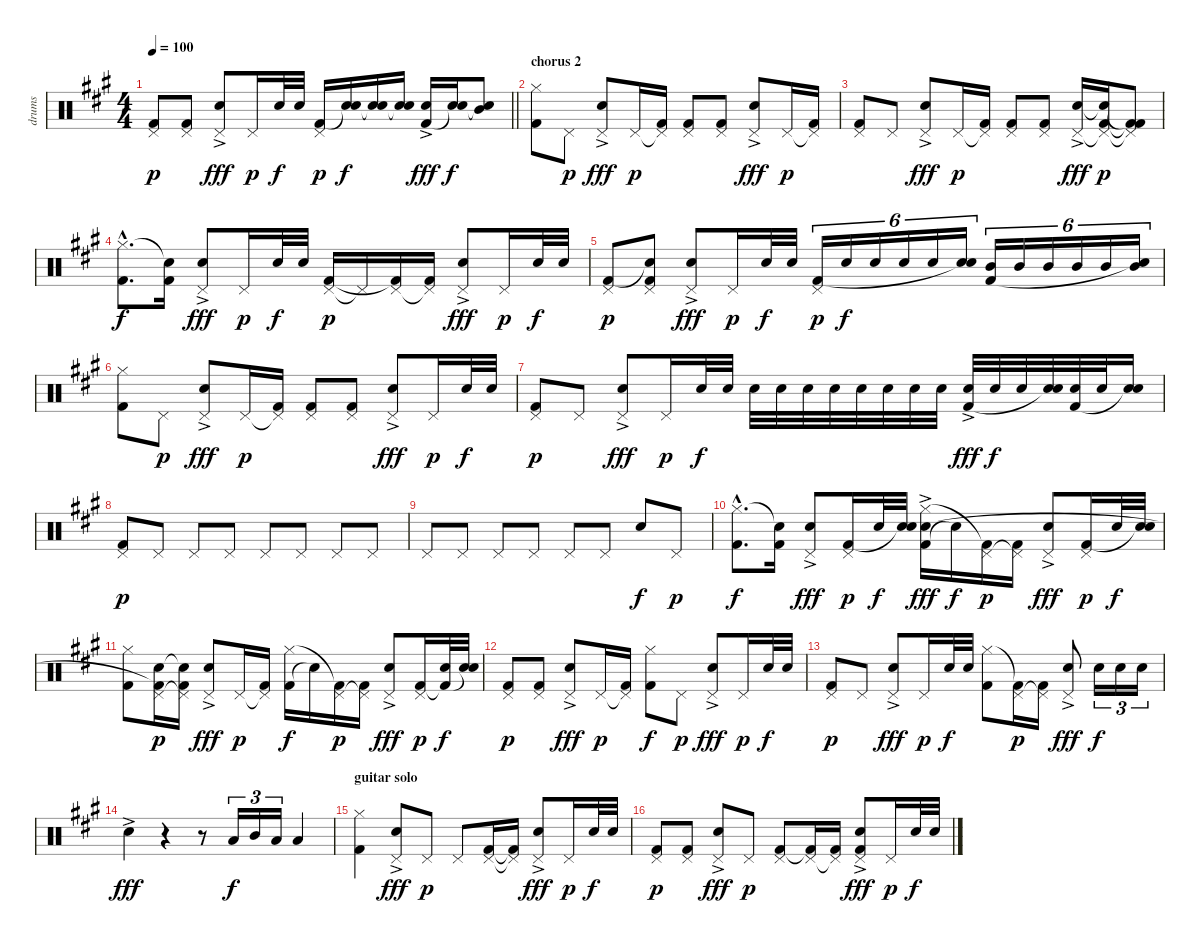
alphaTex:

\track ("drums" "drums") {instrument percussion}
\staff {score}
\articulation defaults
\ts (4 4)
\tempo 100
\clef neutral
\barLineRight lightlight
\ks a
("Pedal Hi-Hat (hit)" "Kick (hit) 2").8{dy p} ("Pedal Hi-Hat (hit)" "Kick (hit) 2").8 ("Pedal Hi-Hat (hit)" "Snare (hit) 2"{ac}).8{dy fff} "Pedal Hi-Hat (hit)".16{dy p} "Snare (hit) 2".32{dy f} "Snare (hit) 2".32 ("Pedal Hi-Hat (hit)" "Kick (hit) 2").16{dy p} ("Snare (hit) 2" "Snare (hit)"{t}).16{dy f} ("Snare (hit) 2" "Snare (hit)"{t}).16 ("Snare (hit) 2" "Snare (hit)"{t}).16 ("Snare (hit) 2"{ac} "Kick (hit) 2").16{dy fff} ("Snare (hit) 2" "Snare (hit)"{t}).16{dy f} ("Mid Tom (hit)" "Snare (hit)"{t}).8 |
\section ("" "chorus 2")
("Hi-Hat (closed)" "Kick (hit) 2").8 "Pedal Hi-Hat (hit)".8{dy p} ("Pedal Hi-Hat (hit)" "Snare (hit) 2"{ac}).8{dy fff} "Pedal Hi-Hat (hit)".16{dy p} ("Pedal Hi-Hat (hit)"{t} "Kick (hit) 2").16 ("Pedal Hi-Hat (hit)" "Kick (hit) 2").8 ("Pedal Hi-Hat (hit)" "Kick (hit) 2").8 ("Pedal Hi-Hat (hit)" "Snare (hit) 2"{ac}).8{dy fff} "Pedal Hi-Hat (hit)".16{dy p} ("Pedal Hi-Hat (hit)"{t} "Kick (hit) 2").16 |
("Pedal Hi-Hat (hit)" "Kick (hit) 2").8 "Pedal Hi-Hat (hit)".8 ("Pedal Hi-Hat (hit)" "Snare (hit) 2"{ac}).8{dy fff} "Pedal Hi-Hat (hit)".16{dy p} ("Pedal Hi-Hat (hit)"{t} "Kick (hit) 2").16 ("Pedal Hi-Hat (hit)" "Kick (hit) 2").8 ("Pedal Hi-Hat (hit)" "Kick (hit) 2").8 ("Pedal Hi-Hat (hit)" "Snare (hit) 2"{ac}).16{dy fff} ("Pedal Hi-Hat (hit)"{t} "Snare (hit)"{t} "Kick (hit) 2").16{dy p} ("Pedal Hi-Hat (hit)"{t} "Kick (hit) 2"{t} "Kick (hit) 2"{t}).8 |
("Hi-Hat (closed)"{hac} "Kick (hit) 2"{hac}).8{d dy f} ("Snare (hit)"{t} "Kick (hit) 2").16 ("Pedal Hi-Hat (hit)" "Snare (hit) 2"{ac}).8{dy fff} "Pedal Hi-Hat (hit)".16{dy p} "Snare (hit) 2".32{dy f} "Snare (hit) 2".32 ("Pedal Hi-Hat (hit)" "Kick (hit) 2").16{dy p} "Pedal Hi-Hat (hit)"{t}.16 ("Pedal Hi-Hat (hit)" "Kick (hit) 2"{t}).16 ("Pedal Hi-Hat (hit)"{t} "Kick (hit) 2").16 ("Pedal Hi-Hat (hit)" "Snare (hit) 2"{ac}).8{dy fff} "Pedal Hi-Hat (hit)".16{dy p} "Snare (hit) 2".32{dy f} "Snare (hit) 2".32 |
("Pedal Hi-Hat (hit)" "Kick (hit) 2").8{dy p} ("Pedal Hi-Hat (hit)" "Snare (hit)"{t} "Kick (hit) 2").8 ("Pedal Hi-Hat (hit)" "Snare (hit) 2"{ac}).8{dy fff} "Pedal Hi-Hat (hit)".16{dy p} "Snare (hit) 2".32{dy f} "Snare (hit) 2".32 ("Pedal Hi-Hat (hit)" "Kick (hit) 2").16{tu (6 4) dy p} "Snare (hit) 2".16{tu (6 4) dy f} "Snare (hit) 2".16{tu (6 4)} "Snare (hit) 2".16{tu (6 4)} "Snare (hit) 2".16{tu (6 4)} ("Snare (hit) 2" "Snare (hit)"{t}).16{tu (6 4)} ("Mid Tom (hit)" "Kick (hit) 2").16{tu (6 4)} "Mid Tom (hit)".16{tu (6 4)} "Mid Tom (hit)".16{tu (6 4)} "Mid Tom (hit)".16{tu (6 4)} "Mid Tom (hit)".16{tu (6 4)} ("Mid Tom (hit)" "Snare (hit)"{t}).16{tu (6 4)} |
("Hi-Hat (closed)" "Kick (hit) 2").8 "Pedal Hi-Hat (hit)".8{dy p} ("Pedal Hi-Hat (hit)" "Snare (hit) 2"{ac}).8{dy fff} "Pedal Hi-Hat (hit)".16{dy p} ("Pedal Hi-Hat (hit)"{t} "Kick (hit) 2").16 ("Pedal Hi-Hat (hit)" "Kick (hit) 2").8 ("Pedal Hi-Hat (hit)" "Kick (hit) 2").8 ("Pedal Hi-Hat (hit)" "Snare (hit) 2"{ac}).8{dy fff} "Pedal Hi-Hat (hit)".16{dy p} "Snare (hit) 2".32{dy f} "Snare (hit) 2".32 |
("Pedal Hi-Hat (hit)" "Kick (hit) 2").8{dy p} "Pedal Hi-Hat (hit)".8 ("Pedal Hi-Hat (hit)" "Snare (hit) 2"{ac}).8{dy fff} "Pedal Hi-Hat (hit)".16{dy p} "Snare (hit) 2".32{dy f} "Snare (hit) 2".32 "Snare (hit) 2".32 "Snare (hit) 2".32 "Snare (hit) 2".32 "Snare (hit) 2".32 "Snare (hit) 2".32 "Snare (hit) 2".32 "Snare (hit) 2".32 "Snare (hit) 2".32 ("Snare (hit) 2"{ac} "Kick (hit) 2").32{dy fff} "Snare (hit) 2".32{dy f} "Snare (hit) 2".32 ("Snare (hit) 2" "Snare (hit)"{t}).32 ("Snare (hit) 2" "Kick (hit) 2").32 "Snare (hit) 2".32 ("Snare (hit) 2" "Snare (hit)"{t}).16 |
("Pedal Hi-Hat (hit)" "Kick (hit) 2").8{dy p} "Pedal Hi-Hat (hit)".8 "Pedal Hi-Hat (hit)".8 "Pedal Hi-Hat (hit)".8 "Pedal Hi-Hat (hit)".8 "Pedal Hi-Hat (hit)".8 "Pedal Hi-Hat (hit)".8 "Pedal Hi-Hat (hit)".8 |
"Pedal Hi-Hat (hit)".8 "Pedal Hi-Hat (hit)".8 "Pedal Hi-Hat (hit)".8 "Pedal Hi-Hat (hit)".8 "Pedal Hi-Hat (hit)".8 "Pedal Hi-Hat (hit)".8 "Snare (hit) 2".8{dy f} "Pedal Hi-Hat (hit)".8{dy p} |
("Hi-Hat (closed)"{hac} "Kick (hit) 2"{hac}).8{d dy f} ("Snare (hit)"{t} "Kick (hit) 2").16 ("Pedal Hi-Hat (hit)" "Snare (hit) 2"{ac}).8{dy fff} ("Pedal Hi-Hat (hit)" "Kick (hit) 2").16{dy p} "Snare (hit) 2".32{dy f} ("Snare (hit) 2" "Snare (hit)"{t}).32 ("Kick (hit) 2" "Hi-Hat (closed)"{ac} "Snare (hit) 2").16{dy fff} "Snare (hit)"{t}.16{dy f} ("Pedal Hi-Hat (hit)" "Kick (hit) 2"{t}).16{dy p} ("Pedal Hi-Hat (hit)"{t} "Kick (hit) 2").16 ("Pedal Hi-Hat (hit)" "Snare (hit) 2"{ac}).8{dy fff} ("Pedal Hi-Hat (hit)" "Kick (hit) 2").16{dy p} "Snare (hit) 2".32{dy f} ("Snare (hit) 2" "Snare (hit)"{t}).32 |
("Hi-Hat (closed)" "Kick (hit) 2").8 ("Pedal Hi-Hat (hit)" "Snare (hit) 2" "Kick (hit) 2"{t}).16{dy p} ("Pedal Hi-Hat (hit)"{t} "Snare (hit) 2"{t} "Kick (hit) 2").16 ("Pedal Hi-Hat (hit)" "Snare (hit) 2"{ac}).8{dy fff} "Pedal Hi-Hat (hit)".16{dy p} ("Pedal Hi-Hat (hit)"{t} "Kick (hit) 2").16 ("Kick (hit) 2" "Hi-Hat (closed)").16{dy f} "Snare (hit)"{t}.16 ("Pedal Hi-Hat (hit)" "Kick (hit) 2"{t}).16{dy p} ("Pedal Hi-Hat (hit)"{t} "Kick (hit) 2").16 ("Pedal Hi-Hat (hit)" "Snare (hit) 2"{ac}).8{dy fff} ("Pedal Hi-Hat (hit)" "Kick (hit) 2").16{dy p} ("Snare (hit) 2" "Kick (hit) 2"{t}).32{dy f} ("Snare (hit) 2" "Snare (hit)"{t}).32 |
("Pedal Hi-Hat (hit)" "Kick (hit) 2").8{dy p} ("Pedal Hi-Hat (hit)" "Kick (hit) 2").8 ("Pedal Hi-Hat (hit)" "Snare (hit) 2"{ac}).8{dy fff} "Pedal Hi-Hat (hit)".16{dy p} ("Pedal Hi-Hat (hit)"{t} "Kick (hit) 2").16 ("Kick (hit) 2" "Hi-Hat (closed)").8{dy f} "Pedal Hi-Hat (hit)".8{dy p} ("Pedal Hi-Hat (hit)" "Snare (hit) 2"{ac}).8{dy fff} "Pedal Hi-Hat (hit)".16{dy p} "Snare (hit) 2".32{dy f} "Snare (hit) 2".32 |
("Pedal Hi-Hat (hit)" "Kick (hit) 2").8{dy p} "Pedal Hi-Hat (hit)".8 ("Pedal Hi-Hat (hit)" "Snare (hit) 2"{ac}).8{dy fff} "Pedal Hi-Hat (hit)".16{dy p} "Snare (hit) 2".32{dy f} "Snare (hit) 2".32 ("Kick (hit) 2" "Hi-Hat (closed)").8 ("Pedal Hi-Hat (hit)" "Kick (hit) 2"{t}).16{dy p} ("Pedal Hi-Hat (hit)"{t} "Kick (hit) 2").16 ("Pedal Hi-Hat (hit)" "Snare (hit) 2"{ac}).8{dy fff} "Snare (hit) 2".16{tu (3 2) dy f} "Snare (hit) 2".16{tu (3 2)} "Snare (hit) 2".16{tu (3 2)} |
"Snare (hit) 2"{ac}.4{dy fff} r.4 r.8 "Low Tom (hit)".16{tu (3 2) dy f} "Mid Tom (hit)".16{tu (3 2)} "Low Tom (hit)".16{tu (3 2)} "Low Tom (hit)".4 |
\section ("" "guitar solo")
("Hi-Hat (closed)" "Kick (hit) 2").4 ("Pedal Hi-Hat (hit)" "Snare (hit) 2"{ac}).8{dy fff} "Pedal Hi-Hat (hit)".8{dy p} "Pedal Hi-Hat (hit)".8 ("Pedal Hi-Hat (hit)" "Kick (hit) 2").16 ("Pedal Hi-Hat (hit)"{t} "Kick (hit) 2"{t}).16 ("Pedal Hi-Hat (hit)" "Snare (hit) 2"{ac}).8{dy fff} "Pedal Hi-Hat (hit)".16{dy p} "Snare (hit) 2".32{dy f} "Snare (hit) 2".32 |
("Pedal Hi-Hat (hit)" "Kick (hit) 2").8{dy p} ("Pedal Hi-Hat (hit)" "Kick (hit) 2").8 ("Pedal Hi-Hat (hit)" "Snare (hit) 2"{ac}).8{dy fff} "Pedal Hi-Hat (hit)".8{dy p} ("Pedal Hi-Hat (hit)" "Kick (hit) 2").8 ("Pedal Hi-Hat (hit)" "Kick (hit) 2"{t}).16 ("Pedal Hi-Hat (hit)"{t} "Kick (hit) 2").16 ("Pedal Hi-Hat (hit)" "Kick (hit) 2"{ac} "Snare (hit) 2").8{dy fff} "Pedal Hi-Hat (hit)".16{dy p} "Snare (hit) 2".32{dy f} "Snare (hit) 2".32
